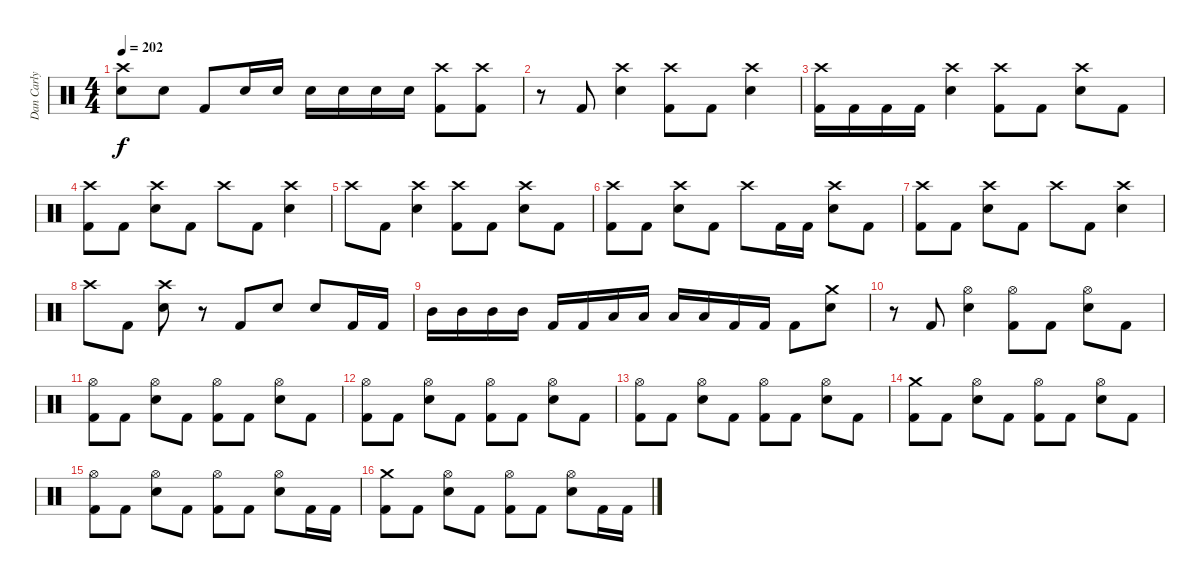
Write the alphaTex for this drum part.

\track ("Dan Carly" "Dan Carly") {instrument percussion}
\staff {score}
\articulation defaults
\ts (4 4)
\tempo 202
\clef neutral
\ks c
("Crash high (hit)" "Electric Snare (hit)").8{dy f} "Electric Snare (hit)".8 "Kick (hit) 2".8 "Electric Snare (hit)".16 "Electric Snare (hit)".16 "Electric Snare (hit)".16 "Electric Snare (hit)".16 "Electric Snare (hit)".16 "Electric Snare (hit)".16 ("Crash high (hit)" "Kick (hit) 2").8 ("Crash high (hit)" "Kick (hit) 2").8 |
r.8 "Kick (hit) 2".8 ("Crash high (hit)" "Electric Snare (hit)").4 ("Crash high (hit)" "Kick (hit) 2").8 "Kick (hit) 2".8 ("Crash high (hit)" "Electric Snare (hit)").4 |
("Crash high (hit)" "Kick (hit) 2").16 "Kick (hit) 2".16 "Kick (hit) 2".16 "Kick (hit) 2".16 ("Crash high (hit)" "Electric Snare (hit)").4 ("Crash high (hit)" "Kick (hit) 2").8 "Kick (hit) 2".8 ("Crash high (hit)" "Electric Snare (hit)").8 "Kick (hit) 2".8 |
("Crash high (hit)" "Kick (hit) 2").8 "Kick (hit) 2".8 ("Crash high (hit)" "Electric Snare (hit)").8 "Kick (hit) 2".8 "Crash high (hit)".8 "Kick (hit) 2".8 ("Crash high (hit)" "Electric Snare (hit)").4 |
"Crash high (hit)".8 "Kick (hit) 2".8 ("Crash high (hit)" "Electric Snare (hit)").4 ("Crash high (hit)" "Kick (hit) 2").8 "Kick (hit) 2".8 ("Crash high (hit)" "Electric Snare (hit)").8 "Kick (hit) 2".8 |
("Crash high (hit)" "Kick (hit) 2").8 "Kick (hit) 2".8 ("Crash high (hit)" "Electric Snare (hit)").8 "Kick (hit) 2".8 "Crash high (hit)".8 "Kick (hit) 2".16 "Kick (hit) 2".16 ("Crash high (hit)" "Electric Snare (hit)").8 "Kick (hit) 2".8 |
("Crash high (hit)" "Kick (hit) 2").8 "Kick (hit) 2".8 ("Crash high (hit)" "Electric Snare (hit)").8 "Kick (hit) 2".8 "Crash high (hit)".8 "Kick (hit) 2".8 ("Crash high (hit)" "Electric Snare (hit)").4 |
"Crash high (hit)".8 "Kick (hit) 2".8 ("Crash high (hit)" "Electric Snare (hit)").8 r.8 "Kick (hit) 2".8 "Electric Snare (hit)".8 "Electric Snare (hit)".8 "Kick (hit) 2".16 "Kick (hit) 2".16 |
"Mid Tom (hit)".16 "Mid Tom (hit)".16 "Mid Tom (hit)".16 "Mid Tom (hit)".16 "Kick (hit) 2".16 "Kick (hit) 2".16 "Low Tom (hit)".16 "Low Tom (hit)".16 "Low Tom (hit)".16 "Low Tom (hit)".16 "Kick (hit) 2".16 "Kick (hit) 2".16 "Kick (hit) 2".8 ("Crash medium (hit)" "Electric Snare (hit)").8 |
r.8 "Kick (hit) 2".8 ("Hi-Hat (open)" "Electric Snare (hit)").4 ("Hi-Hat (open)" "Kick (hit) 2").8 "Kick (hit) 2".8 ("Hi-Hat (open)" "Electric Snare (hit)").8 "Kick (hit) 2".8 |
("Hi-Hat (open)" "Kick (hit) 2").8 "Kick (hit) 2".8 ("Hi-Hat (open)" "Electric Snare (hit)").8 "Kick (hit) 2".8 ("Hi-Hat (open)" "Kick (hit) 2").8 "Kick (hit) 2".8 ("Hi-Hat (open)" "Electric Snare (hit)").8 "Kick (hit) 2".8 |
("Hi-Hat (open)" "Kick (hit) 2").8 "Kick (hit) 2".8 ("Hi-Hat (open)" "Electric Snare (hit)").8 "Kick (hit) 2".8 ("Hi-Hat (open)" "Kick (hit) 2").8 "Kick (hit) 2".8 ("Hi-Hat (open)" "Electric Snare (hit)").8 "Kick (hit) 2".8 |
("Hi-Hat (open)" "Kick (hit) 2").8 "Kick (hit) 2".8 ("Hi-Hat (open)" "Electric Snare (hit)").8 "Kick (hit) 2".8 ("Hi-Hat (open)" "Kick (hit) 2").8 "Kick (hit) 2".8 ("Hi-Hat (open)" "Electric Snare (hit)").8 "Kick (hit) 2".8 |
("Crash medium (hit)" "Kick (hit) 2").8 "Kick (hit) 2".8 ("Hi-Hat (open)" "Electric Snare (hit)").8 "Kick (hit) 2".8 ("Hi-Hat (open)" "Kick (hit) 2").8 "Kick (hit) 2".8 ("Hi-Hat (open)" "Electric Snare (hit)").8 "Kick (hit) 2".8 |
("Hi-Hat (open)" "Kick (hit) 2").8 "Kick (hit) 2".8 ("Hi-Hat (open)" "Electric Snare (hit)").8 "Kick (hit) 2".8 ("Hi-Hat (open)" "Kick (hit) 2").8 "Kick (hit) 2".8 ("Hi-Hat (open)" "Electric Snare (hit)").8 "Kick (hit) 2".16 "Kick (hit) 2".16 |
("Crash medium (hit)" "Kick (hit) 2").8 "Kick (hit) 2".8 ("Hi-Hat (open)" "Electric Snare (hit)").8 "Kick (hit) 2".8 ("Hi-Hat (open)" "Kick (hit) 2").8 "Kick (hit) 2".8 ("Hi-Hat (open)" "Electric Snare (hit)").8 "Kick (hit) 2".16 "Kick (hit) 2".16
